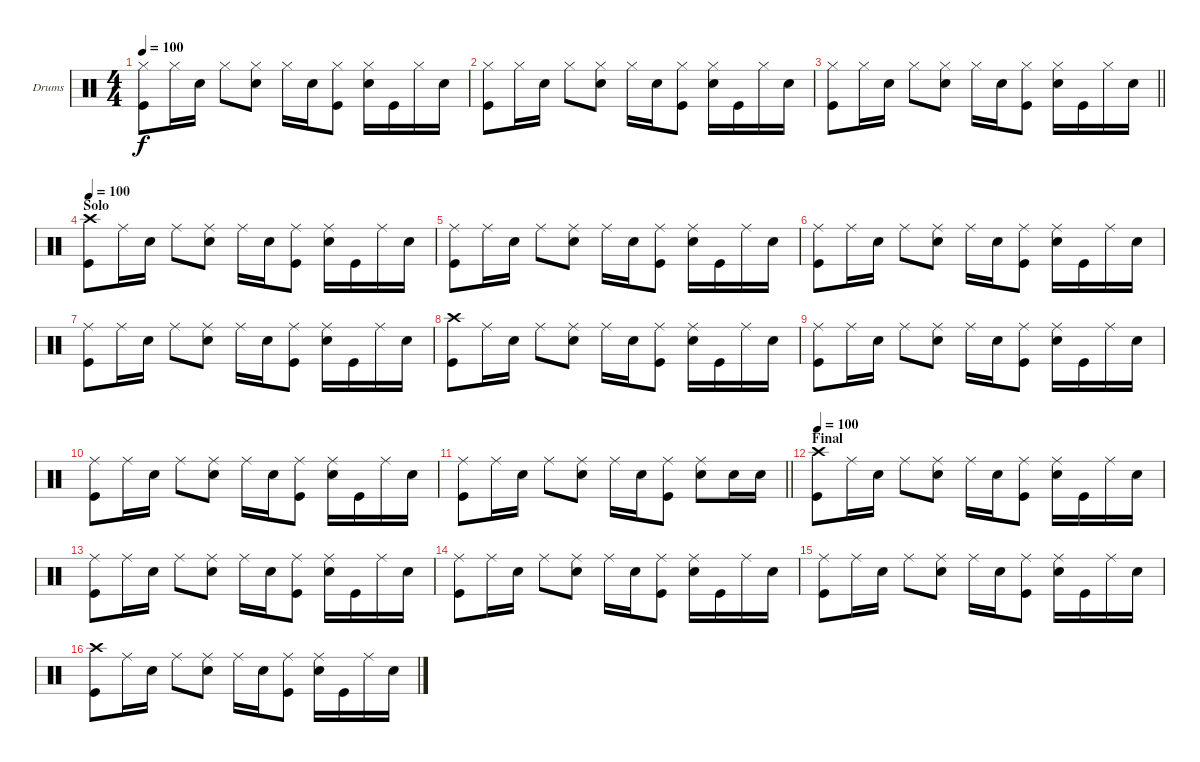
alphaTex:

\bracketExtendMode groupsimilarinstruments
\firstSystemTrackNameOrientation horizontal
\otherSystemsTrackNameOrientation horizontal
\track ("Fabrizio" "Drums") {instrument percussion}
\staff {score}
\articulation defaults
\ts (4 4)
\tempo 100
\clef neutral
\ks c
("Hi-Hat (closed)" "Kick (hit)").8{dy f} "Hi-Hat (closed)".16 "Snare (hit) 2".16 "Hi-Hat (closed)".8 ("Hi-Hat (closed)" "Snare (hit) 2").8 "Hi-Hat (closed)".16 "Snare (hit) 2".16 ("Hi-Hat (closed)" "Kick (hit)").8 ("Hi-Hat (closed)" "Snare (hit) 2").16 "Kick (hit)".16 "Hi-Hat (closed)".16 "Snare (hit) 2".16 |
("Hi-Hat (closed)" "Kick (hit)").8 "Hi-Hat (closed)".16 "Snare (hit) 2".16 "Hi-Hat (closed)".8 ("Hi-Hat (closed)" "Snare (hit) 2").8 "Hi-Hat (closed)".16 "Snare (hit) 2".16 ("Hi-Hat (closed)" "Kick (hit)").8 ("Hi-Hat (closed)" "Snare (hit) 2").16 "Kick (hit)".16 "Hi-Hat (closed)".16 "Snare (hit) 2".16 |
\barLineRight lightlight
("Hi-Hat (closed)" "Kick (hit)").8 "Hi-Hat (closed)".16 "Snare (hit) 2".16 "Hi-Hat (closed)".8 ("Hi-Hat (closed)" "Snare (hit) 2").8 "Hi-Hat (closed)".16 "Snare (hit) 2".16 ("Hi-Hat (closed)" "Kick (hit)").8 ("Hi-Hat (closed)" "Snare (hit) 2").16 "Kick (hit)".16 "Hi-Hat (closed)".16 "Snare (hit) 2".16 |
\section ("" "Solo")
\tempo 100
("Crash high (hit)" "Kick (hit)").8 "Ride (middle)".16 "Snare (hit) 2".16 "Ride (middle)".8 ("Ride (middle)" "Snare (hit) 2").8 "Ride (middle)".16 "Snare (hit) 2".16 ("Ride (middle)" "Kick (hit)").8 ("Ride (middle)" "Snare (hit) 2").16 "Kick (hit)".16 "Ride (middle)".16 "Snare (hit) 2".16 |
("Ride (middle)" "Kick (hit)").8 "Ride (middle)".16 "Snare (hit) 2".16 "Ride (middle)".8 ("Ride (middle)" "Snare (hit) 2").8 "Ride (middle)".16 "Snare (hit) 2".16 ("Ride (middle)" "Kick (hit)").8 ("Ride (middle)" "Snare (hit) 2").16 "Kick (hit)".16 "Ride (middle)".16 "Snare (hit) 2".16 |
("Ride (middle)" "Kick (hit)").8 "Ride (middle)".16 "Snare (hit) 2".16 "Ride (middle)".8 ("Ride (middle)" "Snare (hit) 2").8 "Ride (middle)".16 "Snare (hit) 2".16 ("Ride (middle)" "Kick (hit)").8 ("Ride (middle)" "Snare (hit) 2").16 "Kick (hit)".16 "Ride (middle)".16 "Snare (hit) 2".16 |
("Ride (middle)" "Kick (hit)").8 "Ride (middle)".16 "Snare (hit) 2".16 "Ride (middle)".8 ("Ride (middle)" "Snare (hit) 2").8 "Ride (middle)".16 "Snare (hit) 2".16 ("Ride (middle)" "Kick (hit)").8 ("Ride (middle)" "Snare (hit) 2").16 "Kick (hit)".16 "Ride (middle)".16 "Snare (hit) 2".16 |
("Crash high (hit)" "Kick (hit)").8 "Ride (middle)".16 "Snare (hit) 2".16 "Ride (middle)".8 ("Ride (middle)" "Snare (hit) 2").8 "Ride (middle)".16 "Snare (hit) 2".16 ("Ride (middle)" "Kick (hit)").8 ("Ride (middle)" "Snare (hit) 2").16 "Kick (hit)".16 "Ride (middle)".16 "Snare (hit) 2".16 |
("Ride (middle)" "Kick (hit)").8 "Ride (middle)".16 "Snare (hit) 2".16 "Ride (middle)".8 ("Ride (middle)" "Snare (hit) 2").8 "Ride (middle)".16 "Snare (hit) 2".16 ("Ride (middle)" "Kick (hit)").8 ("Ride (middle)" "Snare (hit) 2").16 "Kick (hit)".16 "Ride (middle)".16 "Snare (hit) 2".16 |
("Ride (middle)" "Kick (hit)").8 "Ride (middle)".16 "Snare (hit) 2".16 "Ride (middle)".8 ("Ride (middle)" "Snare (hit) 2").8 "Ride (middle)".16 "Snare (hit) 2".16 ("Ride (middle)" "Kick (hit)").8 ("Ride (middle)" "Snare (hit) 2").16 "Kick (hit)".16 "Ride (middle)".16 "Snare (hit) 2".16 |
\barLineRight lightlight
("Ride (middle)" "Kick (hit)").8 "Ride (middle)".16 "Snare (hit) 2".16 "Ride (middle)".8 ("Ride (middle)" "Snare (hit) 2").8 "Ride (middle)".16 "Snare (hit) 2".16 ("Ride (middle)" "Kick (hit)").8 ("Ride (middle)" "Snare (hit) 2").8 "Snare (hit) 2".16 "Snare (hit) 2".16 |
\section ("" "Final")
\tempo 100
("Crash high (hit)" "Kick (hit)").8 "Ride (middle)".16 "Snare (hit) 2".16 "Ride (middle)".8 ("Ride (middle)" "Snare (hit) 2").8 "Ride (middle)".16 "Snare (hit) 2".16 ("Ride (middle)" "Kick (hit)").8 ("Ride (middle)" "Snare (hit) 2").16 "Kick (hit)".16 "Ride (middle)".16 "Snare (hit) 2".16 |
("Ride (middle)" "Kick (hit)").8 "Ride (middle)".16 "Snare (hit) 2".16 "Ride (middle)".8 ("Ride (middle)" "Snare (hit) 2").8 "Ride (middle)".16 "Snare (hit) 2".16 ("Ride (middle)" "Kick (hit)").8 ("Ride (middle)" "Snare (hit) 2").16 "Kick (hit)".16 "Ride (middle)".16 "Snare (hit) 2".16 |
("Ride (middle)" "Kick (hit)").8 "Ride (middle)".16 "Snare (hit) 2".16 "Ride (middle)".8 ("Ride (middle)" "Snare (hit) 2").8 "Ride (middle)".16 "Snare (hit) 2".16 ("Ride (middle)" "Kick (hit)").8 ("Ride (middle)" "Snare (hit) 2").16 "Kick (hit)".16 "Ride (middle)".16 "Snare (hit) 2".16 |
("Ride (middle)" "Kick (hit)").8 "Ride (middle)".16 "Snare (hit) 2".16 "Ride (middle)".8 ("Ride (middle)" "Snare (hit) 2").8 "Ride (middle)".16 "Snare (hit) 2".16 ("Ride (middle)" "Kick (hit)").8 ("Ride (middle)" "Snare (hit) 2").16 "Kick (hit)".16 "Ride (middle)".16 "Snare (hit) 2".16 |
("Crash high (hit)" "Kick (hit)").8 "Ride (middle)".16 "Snare (hit) 2".16 "Ride (middle)".8 ("Ride (middle)" "Snare (hit) 2").8 "Ride (middle)".16 "Snare (hit) 2".16 ("Ride (middle)" "Kick (hit)").8 ("Ride (middle)" "Snare (hit) 2").16 "Kick (hit)".16 "Ride (middle)".16 "Snare (hit) 2".16
